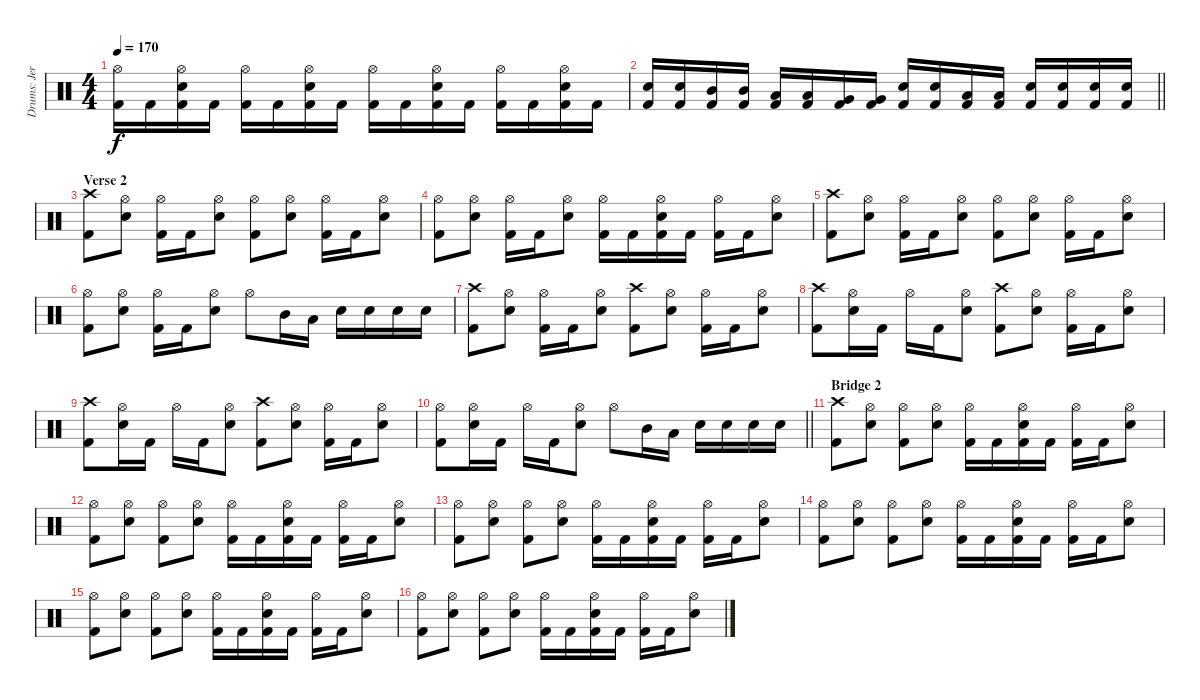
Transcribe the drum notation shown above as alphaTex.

\track ("Drums: Jere Luokkamäki" "Drums: Jer") {instrument percussion}
\staff {score}
\articulation defaults
\ts (4 4)
\tempo 170
\clef neutral
\ks aminor
("Hi-Hat (open)" "Kick (hit) 2").16{dy f} "Kick (hit) 2".16 ("Hi-Hat (open)" "Electric Snare (hit)" "Kick (hit) 2").16 "Kick (hit) 2".16 ("Hi-Hat (open)" "Kick (hit) 2").16 "Kick (hit) 2".16 ("Hi-Hat (open)" "Electric Snare (hit)" "Kick (hit) 2").16 "Kick (hit) 2".16 ("Hi-Hat (open)" "Kick (hit) 2").16 "Kick (hit) 2".16 ("Hi-Hat (open)" "Electric Snare (hit)" "Kick (hit) 2").16 "Kick (hit) 2".16 ("Hi-Hat (open)" "Kick (hit) 2").16 "Kick (hit) 2".16 ("Hi-Hat (open)" "Electric Snare (hit)" "Kick (hit) 2").16 "Kick (hit) 2".16 |
\barLineRight lightlight
("Electric Snare (hit)" "Kick (hit) 2").16 ("Electric Snare (hit)" "Kick (hit) 2").16 ("Mid Tom (hit)" "Kick (hit) 2").16 ("Mid Tom (hit)" "Kick (hit) 2").16 ("Low Tom (hit)" "Kick (hit) 2").16 ("Low Tom (hit)" "Kick (hit) 2").16 ("Very Low Tom (hit)" "Kick (hit) 2").16 ("Very Low Tom (hit)" "Kick (hit) 2").16 ("Electric Snare (hit)" "Kick (hit) 2").16 ("Electric Snare (hit)" "Kick (hit) 2").16 ("Low Tom (hit)" "Kick (hit) 2").16 ("Low Tom (hit)" "Kick (hit) 2").16 ("Electric Snare (hit)" "Kick (hit) 2").16 ("Electric Snare (hit)" "Kick (hit) 2").16 ("Electric Snare (hit)" "Kick (hit) 2").16 ("Electric Snare (hit)" "Kick (hit) 2").16 |
\section ("" "Verse 2")
("Crash high (hit)" "Kick (hit) 2").8 ("Hi-Hat (open)" "Electric Snare (hit)").8 ("Hi-Hat (open)" "Kick (hit) 2").16 "Kick (hit) 2".16 ("Hi-Hat (open)" "Electric Snare (hit)").8 ("Hi-Hat (open)" "Kick (hit) 2").8 ("Hi-Hat (open)" "Electric Snare (hit)").8 ("Hi-Hat (open)" "Kick (hit) 2").16 "Kick (hit) 2".16 ("Hi-Hat (open)" "Electric Snare (hit)").8 |
("Hi-Hat (open)" "Kick (hit) 2").8 ("Hi-Hat (open)" "Electric Snare (hit)").8 ("Hi-Hat (open)" "Kick (hit) 2").16 "Kick (hit) 2".16 ("Hi-Hat (open)" "Electric Snare (hit)").8 ("Hi-Hat (open)" "Kick (hit) 2").16 "Kick (hit) 2".16 ("Hi-Hat (open)" "Electric Snare (hit)" "Kick (hit) 2").16 "Kick (hit) 2".16 ("Hi-Hat (open)" "Kick (hit) 2").16 "Kick (hit) 2".16 ("Hi-Hat (open)" "Electric Snare (hit)").8 |
("Crash high (hit)" "Kick (hit) 2").8 ("Hi-Hat (open)" "Electric Snare (hit)").8 ("Hi-Hat (open)" "Kick (hit) 2").16 "Kick (hit) 2".16 ("Hi-Hat (open)" "Electric Snare (hit)").8 ("Hi-Hat (open)" "Kick (hit) 2").8 ("Hi-Hat (open)" "Electric Snare (hit)").8 ("Hi-Hat (open)" "Kick (hit) 2").16 "Kick (hit) 2".16 ("Hi-Hat (open)" "Electric Snare (hit)").8 |
("Hi-Hat (open)" "Kick (hit) 2").8 ("Hi-Hat (open)" "Electric Snare (hit)").8 ("Hi-Hat (open)" "Kick (hit) 2").16 "Kick (hit) 2".16 ("Hi-Hat (open)" "Electric Snare (hit)").8 "Hi-Hat (open)".8 "Mid Tom (hit)".16 "Low Tom (hit)".16 "Electric Snare (hit)".16 "Electric Snare (hit)".16 "Electric Snare (hit)".16 "Electric Snare (hit)".16 |
("Crash high (hit)" "Kick (hit) 2").8 ("Hi-Hat (open)" "Electric Snare (hit)").8 ("Hi-Hat (open)" "Kick (hit) 2").16 "Kick (hit) 2".16 ("Hi-Hat (open)" "Electric Snare (hit)").8 ("Crash high (hit)" "Kick (hit) 2").8 ("Hi-Hat (open)" "Electric Snare (hit)").8 ("Hi-Hat (open)" "Kick (hit) 2").16 "Kick (hit) 2".16 ("Hi-Hat (open)" "Electric Snare (hit)").8 |
("Crash high (hit)" "Kick (hit) 2").8 ("Hi-Hat (open)" "Electric Snare (hit)").16 "Kick (hit) 2".16 "Hi-Hat (open)".16 "Kick (hit) 2".16 ("Hi-Hat (open)" "Electric Snare (hit)").8 ("Crash high (hit)" "Kick (hit) 2").8 ("Hi-Hat (open)" "Electric Snare (hit)").8 ("Hi-Hat (open)" "Kick (hit) 2").16 "Kick (hit) 2".16 ("Hi-Hat (open)" "Electric Snare (hit)").8 |
("Crash high (hit)" "Kick (hit) 2").8 ("Hi-Hat (open)" "Electric Snare (hit)").16 "Kick (hit) 2".16 "Hi-Hat (open)".16 "Kick (hit) 2".16 ("Hi-Hat (open)" "Electric Snare (hit)").8 ("Crash high (hit)" "Kick (hit) 2").8 ("Hi-Hat (open)" "Electric Snare (hit)").8 ("Hi-Hat (open)" "Kick (hit) 2").16 "Kick (hit) 2".16 ("Hi-Hat (open)" "Electric Snare (hit)").8 |
\barLineRight lightlight
("Hi-Hat (open)" "Kick (hit) 2").8 ("Hi-Hat (open)" "Electric Snare (hit)").16 "Kick (hit) 2".16 "Hi-Hat (open)".16 "Kick (hit) 2".16 ("Hi-Hat (open)" "Electric Snare (hit)").8 "Hi-Hat (open)".8 "Mid Tom (hit)".16 "Low Tom (hit)".16 "Electric Snare (hit)".16 "Electric Snare (hit)".16 "Electric Snare (hit)".16 "Electric Snare (hit)".16 |
\section ("" "Bridge 2")
("Crash high (hit)" "Kick (hit) 2").8 ("Hi-Hat (open)" "Electric Snare (hit)").8 ("Hi-Hat (open)" "Kick (hit) 2").8 ("Hi-Hat (open)" "Electric Snare (hit)").8 ("Hi-Hat (open)" "Kick (hit) 2").16 "Kick (hit) 2".16 ("Hi-Hat (open)" "Electric Snare (hit)" "Kick (hit) 2").16 "Kick (hit) 2".16 ("Hi-Hat (open)" "Kick (hit) 2").16 "Kick (hit) 2".16 ("Hi-Hat (open)" "Electric Snare (hit)").8 |
("Hi-Hat (open)" "Kick (hit) 2").8 ("Hi-Hat (open)" "Electric Snare (hit)").8 ("Hi-Hat (open)" "Kick (hit) 2").8 ("Hi-Hat (open)" "Electric Snare (hit)").8 ("Hi-Hat (open)" "Kick (hit) 2").16 "Kick (hit) 2".16 ("Hi-Hat (open)" "Electric Snare (hit)" "Kick (hit) 2").16 "Kick (hit) 2".16 ("Hi-Hat (open)" "Kick (hit) 2").16 "Kick (hit) 2".16 ("Hi-Hat (open)" "Electric Snare (hit)").8 |
("Hi-Hat (open)" "Kick (hit) 2").8 ("Hi-Hat (open)" "Electric Snare (hit)").8 ("Hi-Hat (open)" "Kick (hit) 2").8 ("Hi-Hat (open)" "Electric Snare (hit)").8 ("Hi-Hat (open)" "Kick (hit) 2").16 "Kick (hit) 2".16 ("Hi-Hat (open)" "Electric Snare (hit)" "Kick (hit) 2").16 "Kick (hit) 2".16 ("Hi-Hat (open)" "Kick (hit) 2").16 "Kick (hit) 2".16 ("Hi-Hat (open)" "Electric Snare (hit)").8 |
("Hi-Hat (open)" "Kick (hit) 2").8 ("Hi-Hat (open)" "Electric Snare (hit)").8 ("Hi-Hat (open)" "Kick (hit) 2").8 ("Hi-Hat (open)" "Electric Snare (hit)").8 ("Hi-Hat (open)" "Kick (hit) 2").16 "Kick (hit) 2".16 ("Hi-Hat (open)" "Electric Snare (hit)" "Kick (hit) 2").16 "Kick (hit) 2".16 ("Hi-Hat (open)" "Kick (hit) 2").16 "Kick (hit) 2".16 ("Hi-Hat (open)" "Electric Snare (hit)").8 |
("Hi-Hat (open)" "Kick (hit) 2").8 ("Hi-Hat (open)" "Electric Snare (hit)").8 ("Hi-Hat (open)" "Kick (hit) 2").8 ("Hi-Hat (open)" "Electric Snare (hit)").8 ("Hi-Hat (open)" "Kick (hit) 2").16 "Kick (hit) 2".16 ("Hi-Hat (open)" "Electric Snare (hit)" "Kick (hit) 2").16 "Kick (hit) 2".16 ("Hi-Hat (open)" "Kick (hit) 2").16 "Kick (hit) 2".16 ("Hi-Hat (open)" "Electric Snare (hit)").8 |
("Hi-Hat (open)" "Kick (hit) 2").8 ("Hi-Hat (open)" "Electric Snare (hit)").8 ("Hi-Hat (open)" "Kick (hit) 2").8 ("Hi-Hat (open)" "Electric Snare (hit)").8 ("Hi-Hat (open)" "Kick (hit) 2").16 "Kick (hit) 2".16 ("Hi-Hat (open)" "Electric Snare (hit)" "Kick (hit) 2").16 "Kick (hit) 2".16 ("Hi-Hat (open)" "Kick (hit) 2").16 "Kick (hit) 2".16 ("Hi-Hat (open)" "Electric Snare (hit)").8
